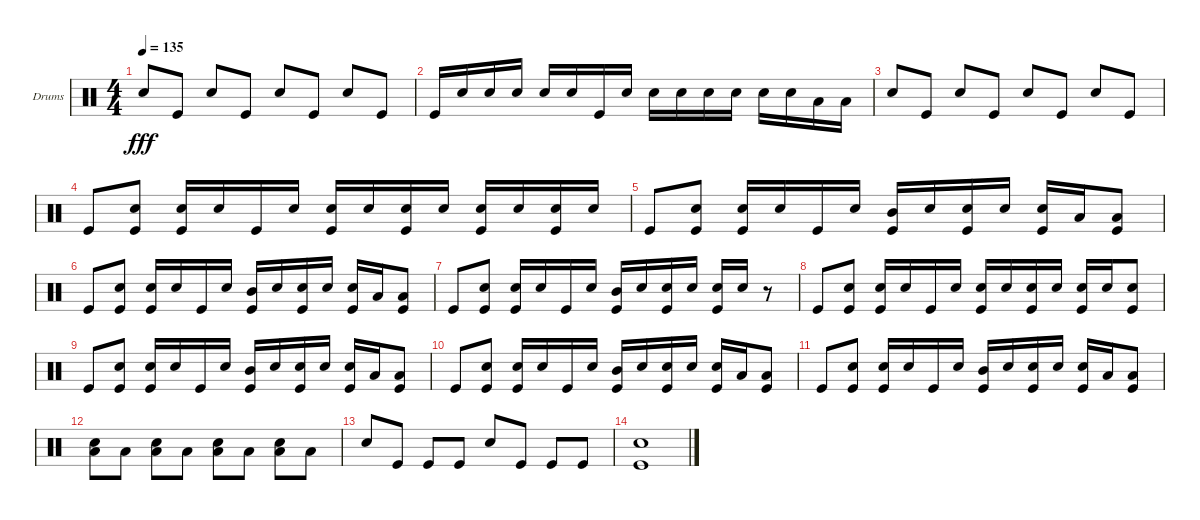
\defaultSystemsLayout 4
\bracketExtendMode groupsimilarinstruments
\firstSystemTrackNameOrientation horizontal
\otherSystemsTrackNameOrientation horizontal
\track ("Helders" "Drums") {instrument percussion}
\staff {score}
\articulation defaults
\ts (4 4)
\tempo 135
\clef neutral
\ks c "Snare (hit) 2".8{dy fff} "Kick (hit)".8 "Snare (hit) 2".8 "Kick (hit)".8 "Snare (hit) 2".8 "Kick (hit)".8 "Snare (hit) 2".8 "Kick (hit)".8
|
"Kick (hit)".16 "Snare (hit) 2".16 "Snare (hit) 2".16 "Snare (hit) 2".16 "Snare (hit) 2".16 "Snare (hit) 2".16 "Kick (hit)".16 "Snare (hit) 2".16 "Snare (hit) 2".16 "Snare (hit) 2".16 "Snare (hit) 2".16 "Snare (hit) 2".16 "Snare (hit) 2".16 "Snare (hit) 2".16 "Low Tom (hit)".16 "Low Tom (hit)".16 |
"Snare (hit) 2".8 "Kick (hit)".8 "Snare (hit) 2".8 "Kick (hit)".8 "Snare (hit) 2".8 "Kick (hit)".8 "Snare (hit) 2".8 "Kick (hit)".8 |
"Kick (hit)".8 ("Snare (hit) 2" "Kick (hit)").8 ("Snare (hit) 2" "Kick (hit)").16 "Snare (hit) 2".16 "Kick (hit)".16 "Snare (hit) 2".16 ("Snare (hit) 2" "Kick (hit)").16 "Snare (hit) 2".16 ("Snare (hit) 2" "Kick (hit)").16 "Snare (hit) 2".16 ("Snare (hit) 2" "Kick (hit)").16 "Snare (hit) 2".16 ("Snare (hit) 2" "Kick (hit)").16 "Snare (hit) 2".16 |
"Kick (hit)".8 ("Snare (hit) 2" "Kick (hit)").8 ("Snare (hit) 2" "Kick (hit)").16 "Snare (hit) 2".16 "Kick (hit)".16 "Snare (hit) 2".16 ("Mid Tom (hit)" "Kick (hit)").16 "Snare (hit) 2".16 ("Snare (hit) 2" "Kick (hit)").16 "Snare (hit) 2".16 ("Snare (hit) 2" "Kick (hit)").16 "Low Tom (hit)".16 ("Low Tom (hit)" "Kick (hit)").8 |
"Kick (hit)".8 ("Snare (hit) 2" "Kick (hit)").8 ("Snare (hit) 2" "Kick (hit)").16 "Snare (hit) 2".16 "Kick (hit)".16 "Snare (hit) 2".16 ("Mid Tom (hit)" "Kick (hit)").16 "Snare (hit) 2".16 ("Snare (hit) 2" "Kick (hit)").16 "Snare (hit) 2".16 ("Snare (hit) 2" "Kick (hit)").16 "Low Tom (hit)".16 ("Low Tom (hit)" "Kick (hit)").8 |
"Kick (hit)".8 ("Snare (hit) 2" "Kick (hit)").8 ("Snare (hit) 2" "Kick (hit)").16 "Snare (hit) 2".16 "Kick (hit)".16 "Snare (hit) 2".16 ("Mid Tom (hit)" "Kick (hit)").16 "Snare (hit) 2".16 ("Snare (hit) 2" "Kick (hit)").16 "Snare (hit) 2".16 ("Snare (hit) 2" "Kick (hit)").16 "Snare (hit) 2".16 r.8 |
"Kick (hit)".8 ("Snare (hit) 2" "Kick (hit)").8 ("Snare (hit) 2" "Kick (hit)").16 "Snare (hit) 2".16 "Kick (hit)".16 "Snare (hit) 2".16 ("Snare (hit) 2" "Kick (hit)").16 "Snare (hit) 2".16 ("Snare (hit) 2" "Kick (hit)").16 "Snare (hit) 2".16 ("Snare (hit) 2" "Kick (hit)").16 "Snare (hit) 2".16 ("Snare (hit) 2" "Kick (hit)").8 |
"Kick (hit)".8 ("Snare (hit) 2" "Kick (hit)").8 ("Snare (hit) 2" "Kick (hit)").16 "Snare (hit) 2".16 "Kick (hit)".16 "Snare (hit) 2".16 ("Mid Tom (hit)" "Kick (hit)").16 "Snare (hit) 2".16 ("Snare (hit) 2" "Kick (hit)").16 "Snare (hit) 2".16 ("Snare (hit) 2" "Kick (hit)").16 "Low Tom (hit)".16 ("Low Tom (hit)" "Kick (hit)").8 |
"Kick (hit)".8 ("Snare (hit) 2" "Kick (hit)").8 ("Snare (hit) 2" "Kick (hit)").16 "Snare (hit) 2".16 "Kick (hit)".16 "Snare (hit) 2".16 ("Mid Tom (hit)" "Kick (hit)").16 "Snare (hit) 2".16 ("Snare (hit) 2" "Kick (hit)").16 "Snare (hit) 2".16 ("Snare (hit) 2" "Kick (hit)").16 "Low Tom (hit)".16 ("Low Tom (hit)" "Kick (hit)").8 |
"Kick (hit)".8 ("Snare (hit) 2" "Kick (hit)").8 ("Snare (hit) 2" "Kick (hit)").16 "Snare (hit) 2".16 "Kick (hit)".16 "Snare (hit) 2".16 ("Mid Tom (hit)" "Kick (hit)").16 "Snare (hit) 2".16 ("Snare (hit) 2" "Kick (hit)").16 "Snare (hit) 2".16 ("Snare (hit) 2" "Kick (hit)").16 "Low Tom (hit)".16 ("Low Tom (hit)" "Kick (hit)").8 |
("Snare (hit) 2" "Low Tom (hit)").8 "Low Tom (hit)".8 ("Snare (hit) 2" "Low Tom (hit)").8 "Low Tom (hit)".8 ("Snare (hit) 2" "Low Tom (hit)").8 "Low Tom (hit)".8 ("Snare (hit) 2" "Low Tom (hit)").8 "Low Tom (hit)".8 |
"Snare (hit) 2".8 "Kick (hit)".8 "Kick (hit)".8 "Kick (hit)".8 "Snare (hit) 2".8 "Kick (hit)".8 "Kick (hit)".8 "Kick (hit)".8 |
("Kick (hit)" "Snare (hit) 2").1
